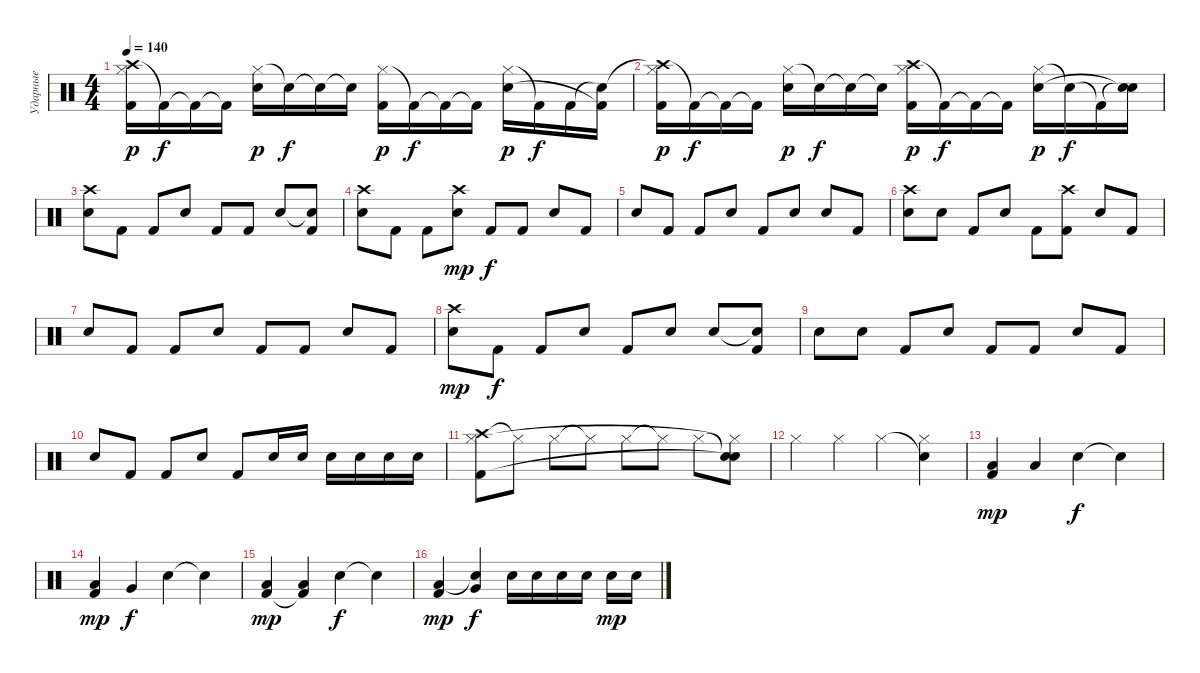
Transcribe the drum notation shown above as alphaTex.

\track ("Ударные" "Ударные") {instrument percussion}
\staff {score}
\articulation defaults
\ts (4 4)
\tempo 140
\clef neutral
\ks c
("Crash high (hit)" "Hi-Hat (closed)" "Kick (hit) 2").16{dy p} "Kick (hit) 2"{t}.16{dy f} "Kick (hit) 2"{t}.16 "Kick (hit) 2"{t}.16 ("Hi-Hat (closed)" "Electric Snare (hit)").16{dy p} "Snare (hit)"{t}.16{dy f} "Snare (hit)"{t}.16 "Snare (hit)"{t}.16 ("Hi-Hat (closed)" "Kick (hit) 2").16{dy p} "Kick (hit) 2"{t}.16{dy f} "Kick (hit) 2"{t}.16 "Kick (hit) 2"{t}.16 ("Hi-Hat (closed)" "Electric Snare (hit)").16{dy p} "Kick (hit) 2"{t}.16{dy f} "Kick (hit) 2".16 ("Snare (hit)"{t} "Kick (hit) 2"{t}).16 |
("Crash high (hit)"{t} "Hi-Hat (closed)" "Kick (hit) 2").16{dy p} "Kick (hit) 2"{t}.16{dy f} "Kick (hit) 2"{t}.16 "Kick (hit) 2"{t}.16 ("Hi-Hat (closed)" "Electric Snare (hit)").16{dy p} "Snare (hit)"{t}.16{dy f} "Snare (hit)"{t}.16 "Snare (hit)"{t}.16 ("Crash high (hit)" "Hi-Hat (closed)" "Kick (hit) 2").16{dy p} "Kick (hit) 2"{t}.16{dy f} "Kick (hit) 2"{t}.16 "Kick (hit) 2"{t}.16 ("Hi-Hat (closed)" "Electric Snare (hit)").16{dy p} "Snare (hit)"{t}.16{dy f} "Kick (hit) 2"{t}.16 ("Snare (hit)"{t} "Snare (hit)"{t}).16 |
("Crash high (hit)" "Electric Snare (hit)").8 "Kick (hit) 2".8 "Kick (hit) 2".8 "Electric Snare (hit)".8 "Kick (hit) 2".8 "Kick (hit) 2".8 "Electric Snare (hit)".8 ("Snare (hit)"{t} "Kick (hit) 2").8 |
("Crash high (hit)" "Electric Snare (hit)").8 "Kick (hit) 2".8 "Kick (hit) 2".8 ("Crash high (hit)" "Electric Snare (hit)").8{dy mp} "Kick (hit) 2".8{dy f} "Kick (hit) 2".8 "Electric Snare (hit)".8 "Kick (hit) 2".8 |
"Electric Snare (hit)".8 "Kick (hit) 2".8 "Kick (hit) 2".8 "Electric Snare (hit)".8 "Kick (hit) 2".8 "Electric Snare (hit)".8 "Electric Snare (hit)".8 "Kick (hit) 2".8 |
("Crash high (hit)" "Electric Snare (hit)").8 "Electric Snare (hit)".8 "Kick (hit) 2".8 "Electric Snare (hit)".8 "Kick (hit) 2".8 ("Crash high (hit)" "Kick (hit) 2").8 "Electric Snare (hit)".8 "Kick (hit) 2".8 |
"Electric Snare (hit)".8 "Kick (hit) 2".8 "Kick (hit) 2".8 "Electric Snare (hit)".8 "Kick (hit) 2".8 "Kick (hit) 2".8 "Electric Snare (hit)".8 "Kick (hit) 2".8 |
("Crash high (hit)" "Electric Snare (hit)").8{dy mp} "Kick (hit) 2".8{dy f} "Kick (hit) 2".8 "Electric Snare (hit)".8 "Kick (hit) 2".8 "Electric Snare (hit)".8 "Electric Snare (hit)".8 ("Snare (hit)"{t} "Kick (hit) 2").8 |
"Electric Snare (hit)".8 "Electric Snare (hit)".8 "Kick (hit) 2".8 "Electric Snare (hit)".8 "Kick (hit) 2".8 "Kick (hit) 2".8 "Electric Snare (hit)".8 "Kick (hit) 2".8 |
"Electric Snare (hit)".8 "Kick (hit) 2".8 "Kick (hit) 2".8 "Electric Snare (hit)".8 "Kick (hit) 2".8 "Electric Snare (hit)".16 "Electric Snare (hit)".16 "Electric Snare (hit)".16 "Electric Snare (hit)".16 "Electric Snare (hit)".16 "Electric Snare (hit)".16 |
("Crash high (hit)" "Hi-Hat (closed)" "Kick (hit) 2").8 "Hi-Hat (closed)"{t}.8 "Hi-Hat (closed)".8 "Hi-Hat (closed)"{t}.8 "Hi-Hat (closed)".8 "Hi-Hat (closed)"{t}.8 "Hi-Hat (closed)".8 ("Snare (hit)"{t} "Hi-Hat (closed)"{t} "Snare (hit)"{t}).8 |
"Hi-Hat (closed)".4 "Hi-Hat (closed)".4 "Hi-Hat (closed)".4 ("Snare (hit)"{t} "Hi-Hat (closed)").4 |
("Low Floor Tom (hit)" "Kick (hit) 2").4{dy mp} "Low Tom (hit)".4 "Electric Snare (hit)".4{dy f} "Electric Snare (hit)"{t}.4 |
("Low Floor Tom (hit)" "Kick (hit) 2").4{dy mp} "Very Low Tom (hit)".4{dy f} "Electric Snare (hit)".4 "Electric Snare (hit)"{t}.4 |
("Low Floor Tom (hit)" "Kick (hit) 2").4{dy mp} ("Low Tom (hit)" "Kick (hit) 2"{t}).4 "Electric Snare (hit)".4{dy f} "Electric Snare (hit)"{t}.4 |
("Low Floor Tom (hit)" "Kick (hit) 2").4{dy mp} ("Snare (hit)"{t} "Very Low Tom (hit)").4{dy f} "Electric Snare (hit)".16 "Electric Snare (hit)".16 "Electric Snare (hit)".16 "Electric Snare (hit)".16 "Electric Snare (hit)".16{dy mp} "Electric Snare (hit)".16
